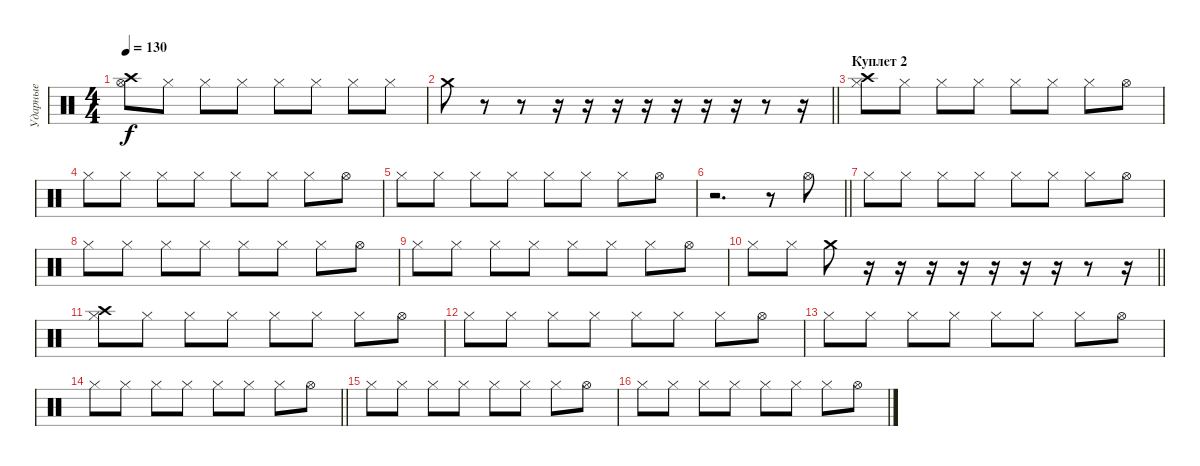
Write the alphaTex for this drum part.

\track ("Ударные" "Ударные") {instrument percussion}
\staff {score}
\articulation defaults
\ts (4 4)
\tempo 130
\clef neutral
\ks c
("Hi-Hat (open)" "Crash high (hit)").8{dy f} "Hi-Hat (closed)".8 "Hi-Hat (closed)".8 "Hi-Hat (closed)".8 "Hi-Hat (closed)".8 "Hi-Hat (closed)".8 "Hi-Hat (closed)".8 "Hi-Hat (closed)".8 |
\barLineRight lightlight "Crash medium (hit)".8
r.8 r.8 r.16 r.16 r.16 r.16 r.16 r.16 r.16 r.8 r.16 |
\section ("" "Куплет 2")
("Hi-Hat (closed)" "Crash high (hit)").8 "Hi-Hat (closed)".8 "Hi-Hat (closed)".8 "Hi-Hat (closed)".8 "Hi-Hat (closed)".8 "Hi-Hat (closed)".8 "Hi-Hat (closed)".8 "Hi-Hat (open)".8 |
"Hi-Hat (closed)".8 "Hi-Hat (closed)".8 "Hi-Hat (closed)".8 "Hi-Hat (closed)".8 "Hi-Hat (closed)".8 "Hi-Hat (closed)".8 "Hi-Hat (closed)".8 "Hi-Hat (open)".8 |
"Hi-Hat (closed)".8 "Hi-Hat (closed)".8 "Hi-Hat (closed)".8 "Hi-Hat (closed)".8 "Hi-Hat (closed)".8 "Hi-Hat (closed)".8 "Hi-Hat (closed)".8 "Hi-Hat (open)".8 |
\barLineRight lightlight
r.2{d} r.8 "Hi-Hat (open)".8 |
"Hi-Hat (closed)".8 "Hi-Hat (closed)".8 "Hi-Hat (closed)".8 "Hi-Hat (closed)".8 "Hi-Hat (closed)".8 "Hi-Hat (closed)".8 "Hi-Hat (closed)".8 "Hi-Hat (open)".8 |
"Hi-Hat (closed)".8 "Hi-Hat (closed)".8 "Hi-Hat (closed)".8 "Hi-Hat (closed)".8 "Hi-Hat (closed)".8 "Hi-Hat (closed)".8 "Hi-Hat (closed)".8 "Hi-Hat (open)".8 |
"Hi-Hat (closed)".8 "Hi-Hat (closed)".8 "Hi-Hat (closed)".8 "Hi-Hat (closed)".8 "Hi-Hat (closed)".8 "Hi-Hat (closed)".8 "Hi-Hat (closed)".8 "Hi-Hat (open)".8 |
\barLineRight lightlight "Hi-Hat (closed)".8 "Hi-Hat (closed)".8 "Crash medium (hit)".8
r.16 r.16 r.16 r.16 r.16 r.16 r.16 r.8 r.16 |
("Hi-Hat (closed)" "Crash high (hit)").8 "Hi-Hat (closed)".8 "Hi-Hat (closed)".8 "Hi-Hat (closed)".8 "Hi-Hat (closed)".8 "Hi-Hat (closed)".8 "Hi-Hat (closed)".8 "Hi-Hat (open)".8 |
"Hi-Hat (closed)".8 "Hi-Hat (closed)".8 "Hi-Hat (closed)".8 "Hi-Hat (closed)".8 "Hi-Hat (closed)".8 "Hi-Hat (closed)".8 "Hi-Hat (closed)".8 "Hi-Hat (open)".8 |
"Hi-Hat (closed)".8 "Hi-Hat (closed)".8 "Hi-Hat (closed)".8 "Hi-Hat (closed)".8 "Hi-Hat (closed)".8 "Hi-Hat (closed)".8 "Hi-Hat (closed)".8 "Hi-Hat (open)".8 |
\barLineRight lightlight "Hi-Hat (closed)".8 "Hi-Hat (closed)".8 "Hi-Hat (closed)".8 "Hi-Hat (closed)".8 "Hi-Hat (closed)".8 "Hi-Hat (closed)".8 "Hi-Hat (closed)".8 "Hi-Hat (open)".8
|
"Hi-Hat (closed)".8 "Hi-Hat (closed)".8 "Hi-Hat (closed)".8 "Hi-Hat (closed)".8 "Hi-Hat (closed)".8 "Hi-Hat (closed)".8 "Hi-Hat (closed)".8 "Hi-Hat (open)".8 |
"Hi-Hat (closed)".8 "Hi-Hat (closed)".8 "Hi-Hat (closed)".8 "Hi-Hat (closed)".8 "Hi-Hat (closed)".8 "Hi-Hat (closed)".8 "Hi-Hat (closed)".8 "Hi-Hat (open)".8
